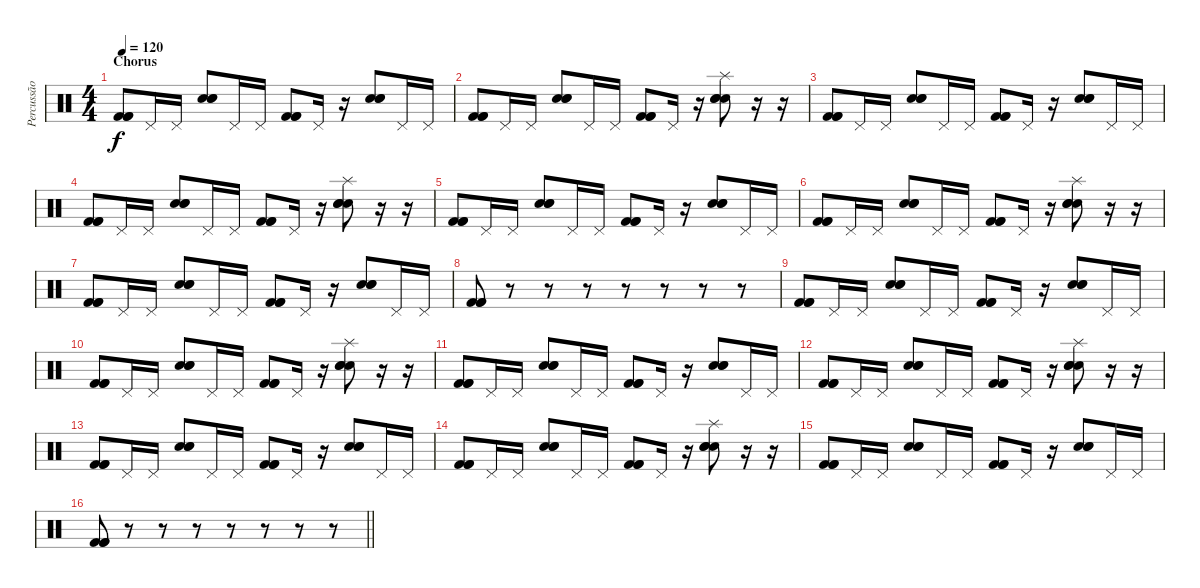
\track ("Percussão" "Percussão") {instrument percussion}
\staff {score}
\articulation defaults
\ts (4 4)
\section ("" "Chorus")
\tempo 120
\clef neutral
\ks c
("Kick (hit) 2" "Kick (hit) 2" "Kick (hit) 2").8{dy f} "Pedal Hi-Hat (hit)".16 "Pedal Hi-Hat (hit)".16 ("Hand Clap (hit)" "Hand Clap (hit)" "Hand Clap (hit)").8 "Pedal Hi-Hat (hit)".16 "Pedal Hi-Hat (hit)".16 ("Kick (hit) 2" "Kick (hit) 2" "Kick (hit) 2").8 "Pedal Hi-Hat (hit)".16 r.16 ("Hand Clap (hit)" "Hand Clap (hit)" "Hand Clap (hit)").8 "Pedal Hi-Hat (hit)".16 "Pedal Hi-Hat (hit)".16 |
("Kick (hit) 2" "Kick (hit) 2" "Kick (hit) 2").8 "Pedal Hi-Hat (hit)".16 "Pedal Hi-Hat (hit)".16 ("Hand Clap (hit)" "Hand Clap (hit)" "Hand Clap (hit)").8 "Pedal Hi-Hat (hit)".16 "Pedal Hi-Hat (hit)".16 ("Kick (hit) 2" "Kick (hit) 2" "Kick (hit) 2").8 "Pedal Hi-Hat (hit)".16 r.16 ("Splash (hit)" "Hand Clap (hit)" "Hand Clap (hit)" "Hand Clap (hit)").8 r.16 r.16 |
("Kick (hit) 2" "Kick (hit) 2" "Kick (hit) 2").8 "Pedal Hi-Hat (hit)".16 "Pedal Hi-Hat (hit)".16 ("Hand Clap (hit)" "Hand Clap (hit)" "Hand Clap (hit)").8 "Pedal Hi-Hat (hit)".16 "Pedal Hi-Hat (hit)".16 ("Kick (hit) 2" "Kick (hit) 2" "Kick (hit) 2").8 "Pedal Hi-Hat (hit)".16 r.16 ("Hand Clap (hit)" "Hand Clap (hit)" "Hand Clap (hit)").8 "Pedal Hi-Hat (hit)".16 "Pedal Hi-Hat (hit)".16 |
("Kick (hit) 2" "Kick (hit) 2" "Kick (hit) 2").8 "Pedal Hi-Hat (hit)".16 "Pedal Hi-Hat (hit)".16 ("Hand Clap (hit)" "Hand Clap (hit)" "Hand Clap (hit)").8 "Pedal Hi-Hat (hit)".16 "Pedal Hi-Hat (hit)".16 ("Kick (hit) 2" "Kick (hit) 2" "Kick (hit) 2").8 "Pedal Hi-Hat (hit)".16 r.16 ("Splash (hit)" "Hand Clap (hit)" "Hand Clap (hit)" "Hand Clap (hit)").8 r.16 r.16 |
("Kick (hit) 2" "Kick (hit) 2" "Kick (hit) 2").8 "Pedal Hi-Hat (hit)".16 "Pedal Hi-Hat (hit)".16 ("Hand Clap (hit)" "Hand Clap (hit)" "Hand Clap (hit)").8 "Pedal Hi-Hat (hit)".16 "Pedal Hi-Hat (hit)".16 ("Kick (hit) 2" "Kick (hit) 2" "Kick (hit) 2").8 "Pedal Hi-Hat (hit)".16 r.16 ("Hand Clap (hit)" "Hand Clap (hit)" "Hand Clap (hit)").8 "Pedal Hi-Hat (hit)".16 "Pedal Hi-Hat (hit)".16 |
("Kick (hit) 2" "Kick (hit) 2" "Kick (hit) 2").8 "Pedal Hi-Hat (hit)".16 "Pedal Hi-Hat (hit)".16 ("Hand Clap (hit)" "Hand Clap (hit)" "Hand Clap (hit)").8 "Pedal Hi-Hat (hit)".16 "Pedal Hi-Hat (hit)".16 ("Kick (hit) 2" "Kick (hit) 2" "Kick (hit) 2").8 "Pedal Hi-Hat (hit)".16 r.16 ("Splash (hit)" "Hand Clap (hit)" "Hand Clap (hit)" "Hand Clap (hit)").8 r.16 r.16 |
("Kick (hit) 2" "Kick (hit) 2" "Kick (hit) 2").8 "Pedal Hi-Hat (hit)".16 "Pedal Hi-Hat (hit)".16 ("Hand Clap (hit)" "Hand Clap (hit)" "Hand Clap (hit)").8 "Pedal Hi-Hat (hit)".16 "Pedal Hi-Hat (hit)".16 ("Kick (hit) 2" "Kick (hit) 2" "Kick (hit) 2").8 "Pedal Hi-Hat (hit)".16 r.16 ("Hand Clap (hit)" "Hand Clap (hit)" "Hand Clap (hit)").8 "Pedal Hi-Hat (hit)".16 "Pedal Hi-Hat (hit)".16 |
("Kick (hit) 2" "Kick (hit) 2" "Kick (hit) 2").8 r.8 r.8 r.8 r.8 r.8 r.8 r.8 |
("Kick (hit) 2" "Kick (hit) 2" "Kick (hit) 2").8 "Pedal Hi-Hat (hit)".16 "Pedal Hi-Hat (hit)".16 ("Hand Clap (hit)" "Hand Clap (hit)" "Hand Clap (hit)").8 "Pedal Hi-Hat (hit)".16 "Pedal Hi-Hat (hit)".16 ("Kick (hit) 2" "Kick (hit) 2" "Kick (hit) 2").8 "Pedal Hi-Hat (hit)".16 r.16 ("Hand Clap (hit)" "Hand Clap (hit)" "Hand Clap (hit)").8 "Pedal Hi-Hat (hit)".16 "Pedal Hi-Hat (hit)".16 |
("Kick (hit) 2" "Kick (hit) 2" "Kick (hit) 2").8 "Pedal Hi-Hat (hit)".16 "Pedal Hi-Hat (hit)".16 ("Hand Clap (hit)" "Hand Clap (hit)" "Hand Clap (hit)").8 "Pedal Hi-Hat (hit)".16 "Pedal Hi-Hat (hit)".16 ("Kick (hit) 2" "Kick (hit) 2" "Kick (hit) 2").8 "Pedal Hi-Hat (hit)".16 r.16 ("Splash (hit)" "Hand Clap (hit)" "Hand Clap (hit)" "Hand Clap (hit)").8 r.16 r.16 |
("Kick (hit) 2" "Kick (hit) 2" "Kick (hit) 2").8 "Pedal Hi-Hat (hit)".16 "Pedal Hi-Hat (hit)".16 ("Hand Clap (hit)" "Hand Clap (hit)" "Hand Clap (hit)").8 "Pedal Hi-Hat (hit)".16 "Pedal Hi-Hat (hit)".16 ("Kick (hit) 2" "Kick (hit) 2" "Kick (hit) 2").8 "Pedal Hi-Hat (hit)".16 r.16 ("Hand Clap (hit)" "Hand Clap (hit)" "Hand Clap (hit)").8 "Pedal Hi-Hat (hit)".16 "Pedal Hi-Hat (hit)".16 |
("Kick (hit) 2" "Kick (hit) 2" "Kick (hit) 2").8 "Pedal Hi-Hat (hit)".16 "Pedal Hi-Hat (hit)".16 ("Hand Clap (hit)" "Hand Clap (hit)" "Hand Clap (hit)").8 "Pedal Hi-Hat (hit)".16 "Pedal Hi-Hat (hit)".16 ("Kick (hit) 2" "Kick (hit) 2" "Kick (hit) 2").8 "Pedal Hi-Hat (hit)".16 r.16 ("Splash (hit)" "Hand Clap (hit)" "Hand Clap (hit)" "Hand Clap (hit)").8 r.16 r.16 |
("Kick (hit) 2" "Kick (hit) 2" "Kick (hit) 2").8 "Pedal Hi-Hat (hit)".16 "Pedal Hi-Hat (hit)".16 ("Hand Clap (hit)" "Hand Clap (hit)" "Hand Clap (hit)").8 "Pedal Hi-Hat (hit)".16 "Pedal Hi-Hat (hit)".16 ("Kick (hit) 2" "Kick (hit) 2" "Kick (hit) 2").8 "Pedal Hi-Hat (hit)".16 r.16 ("Hand Clap (hit)" "Hand Clap (hit)" "Hand Clap (hit)").8 "Pedal Hi-Hat (hit)".16 "Pedal Hi-Hat (hit)".16 |
("Kick (hit) 2" "Kick (hit) 2" "Kick (hit) 2").8 "Pedal Hi-Hat (hit)".16 "Pedal Hi-Hat (hit)".16 ("Hand Clap (hit)" "Hand Clap (hit)" "Hand Clap (hit)").8 "Pedal Hi-Hat (hit)".16 "Pedal Hi-Hat (hit)".16 ("Kick (hit) 2" "Kick (hit) 2" "Kick (hit) 2").8 "Pedal Hi-Hat (hit)".16 r.16 ("Splash (hit)" "Hand Clap (hit)" "Hand Clap (hit)" "Hand Clap (hit)").8 r.16 r.16 |
("Kick (hit) 2" "Kick (hit) 2" "Kick (hit) 2").8 "Pedal Hi-Hat (hit)".16 "Pedal Hi-Hat (hit)".16 ("Hand Clap (hit)" "Hand Clap (hit)" "Hand Clap (hit)").8 "Pedal Hi-Hat (hit)".16 "Pedal Hi-Hat (hit)".16 ("Kick (hit) 2" "Kick (hit) 2" "Kick (hit) 2").8 "Pedal Hi-Hat (hit)".16 r.16 ("Hand Clap (hit)" "Hand Clap (hit)" "Hand Clap (hit)").8 "Pedal Hi-Hat (hit)".16 "Pedal Hi-Hat (hit)".16 |
\barLineRight lightlight
("Kick (hit) 2" "Kick (hit) 2" "Kick (hit) 2").8 r.8 r.8 r.8 r.8 r.8 r.8 r.8
